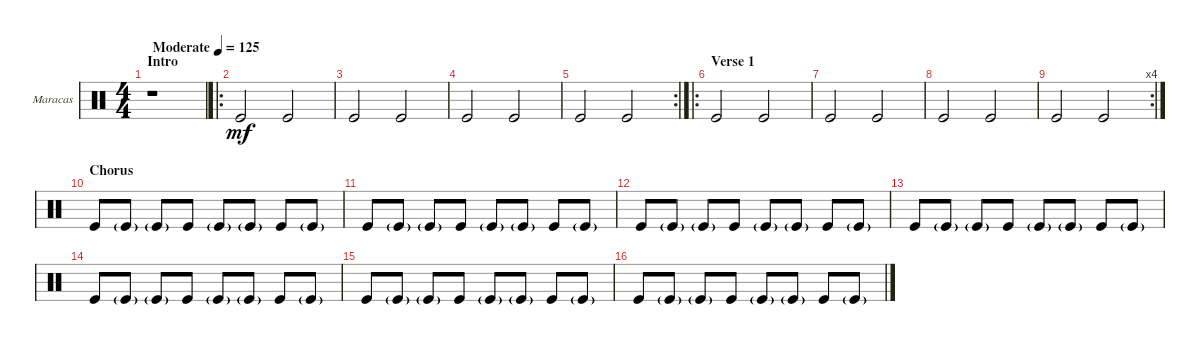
\defaultSystemsLayout 4
\bracketExtendMode groupsimilarinstruments
\firstSystemTrackNameOrientation horizontal
\otherSystemsTrackNameOrientation horizontal
\track ("Maracas" "Maracas") {instrument percussion}
\staff {score}
\articulation defaults
\ts (4 4)
\section ("" "Intro")
\tempo (125 "Moderate")
\clef neutral
\scale
0.448889
\ks c
r.1{dy mf} |
\ro
\scale
0.302222 "Kick (hit)".2 "Kick (hit)".2 |
\scale
0.248889 "Kick (hit)".2 "Kick (hit)".2 |
\scale
0.301075 "Kick (hit)".2 "Kick (hit)".2 |
\rc 2
\scale
0.333333 "Kick (hit)".2 "Kick (hit)".2 |
\ro
\section ("" "Verse 1")
\scale
0.365591 "Kick (hit)".2 "Kick (hit)".2 |
\scale
0.321839 "Kick (hit)".2 "Kick (hit)".2 |
\scale
0.321839 "Kick (hit)".2 "Kick (hit)".2 |
\rc 4
\scale
0.356322 "Kick (hit)".2 "Kick (hit)".2 |
\section ("" "Chorus")
\scale
0.333333 "Kick (hit)".8 "Kick (hit)"{g}.8 "Kick (hit)"{g}.8 "Kick (hit)".8 "Kick (hit)"{g}.8 "Kick (hit)"{g}.8 "Kick (hit)".8 "Kick (hit)"{g}.8 |
\scale
0.333333 "Kick (hit)".8 "Kick (hit)"{g}.8 "Kick (hit)"{g}.8 "Kick (hit)".8 "Kick (hit)"{g}.8 "Kick (hit)"{g}.8 "Kick (hit)".8 "Kick (hit)"{g}.8 |
\scale
0.333333 "Kick (hit)".8 "Kick (hit)"{g}.8 "Kick (hit)"{g}.8 "Kick (hit)".8 "Kick (hit)"{g}.8 "Kick (hit)"{g}.8 "Kick (hit)".8 "Kick (hit)"{g}.8 |
\scale
0.333333 "Kick (hit)".8 "Kick (hit)"{g}.8 "Kick (hit)"{g}.8 "Kick (hit)".8 "Kick (hit)"{g}.8 "Kick (hit)"{g}.8 "Kick (hit)".8 "Kick (hit)"{g}.8 |
\scale
0.333333 "Kick (hit)".8 "Kick (hit)"{g}.8 "Kick (hit)"{g}.8 "Kick (hit)".8 "Kick (hit)"{g}.8 "Kick (hit)"{g}.8 "Kick (hit)".8 "Kick (hit)"{g}.8 |
\scale
0.333333 "Kick (hit)".8 "Kick (hit)"{g}.8 "Kick (hit)"{g}.8 "Kick (hit)".8 "Kick (hit)"{g}.8 "Kick (hit)"{g}.8 "Kick (hit)".8 "Kick (hit)"{g}.8 |
\scale
0.333333 "Kick (hit)".8 "Kick (hit)"{g}.8 "Kick (hit)"{g}.8 "Kick (hit)".8 "Kick (hit)"{g}.8 "Kick (hit)"{g}.8 "Kick (hit)".8 "Kick (hit)"{g}.8
